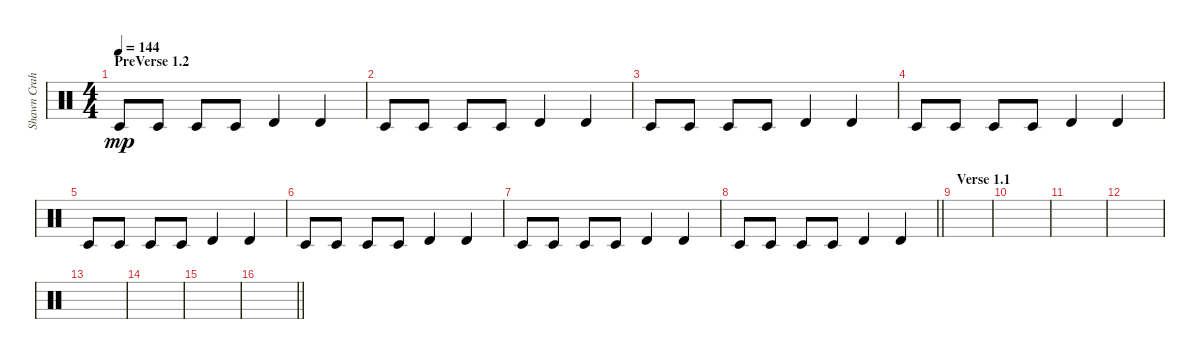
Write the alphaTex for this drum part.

\track ("Shawn Crahan" "Shawn Crah") {instrument percussion}
\staff {score}
\articulation defaults
\ts (4 4)
\section ("" "PreVerse 1.2")
\tempo 144
\clef neutral
\ks c "Timbale low (hit)".8{dy mp} "Timbale low (hit)".8 "Timbale low (hit)".8 "Timbale low (hit)".8 "Timbale high (hit)".4 "Timbale high (hit)".4
|
"Timbale low (hit)".8 "Timbale low (hit)".8 "Timbale low (hit)".8 "Timbale low (hit)".8 "Timbale high (hit)".4 "Timbale high (hit)".4 |
"Timbale low (hit)".8 "Timbale low (hit)".8 "Timbale low (hit)".8 "Timbale low (hit)".8 "Timbale high (hit)".4 "Timbale high (hit)".4 |
"Timbale low (hit)".8 "Timbale low (hit)".8 "Timbale low (hit)".8 "Timbale low (hit)".8 "Timbale high (hit)".4 "Timbale high (hit)".4 |
"Timbale low (hit)".8 "Timbale low (hit)".8 "Timbale low (hit)".8 "Timbale low (hit)".8 "Timbale high (hit)".4 "Timbale high (hit)".4 |
"Timbale low (hit)".8 "Timbale low (hit)".8 "Timbale low (hit)".8 "Timbale low (hit)".8 "Timbale high (hit)".4 "Timbale high (hit)".4 |
"Timbale low (hit)".8 "Timbale low (hit)".8 "Timbale low (hit)".8 "Timbale low (hit)".8 "Timbale high (hit)".4 "Timbale high (hit)".4 |
\barLineRight lightlight "Timbale low (hit)".8 "Timbale low (hit)".8 "Timbale low (hit)".8 "Timbale low (hit)".8 "Timbale high (hit)".4 "Timbale high (hit)".4
|
\section ("" "Verse 1.1")
|
|
|
|
|
|
|
\barLineRight lightlight
